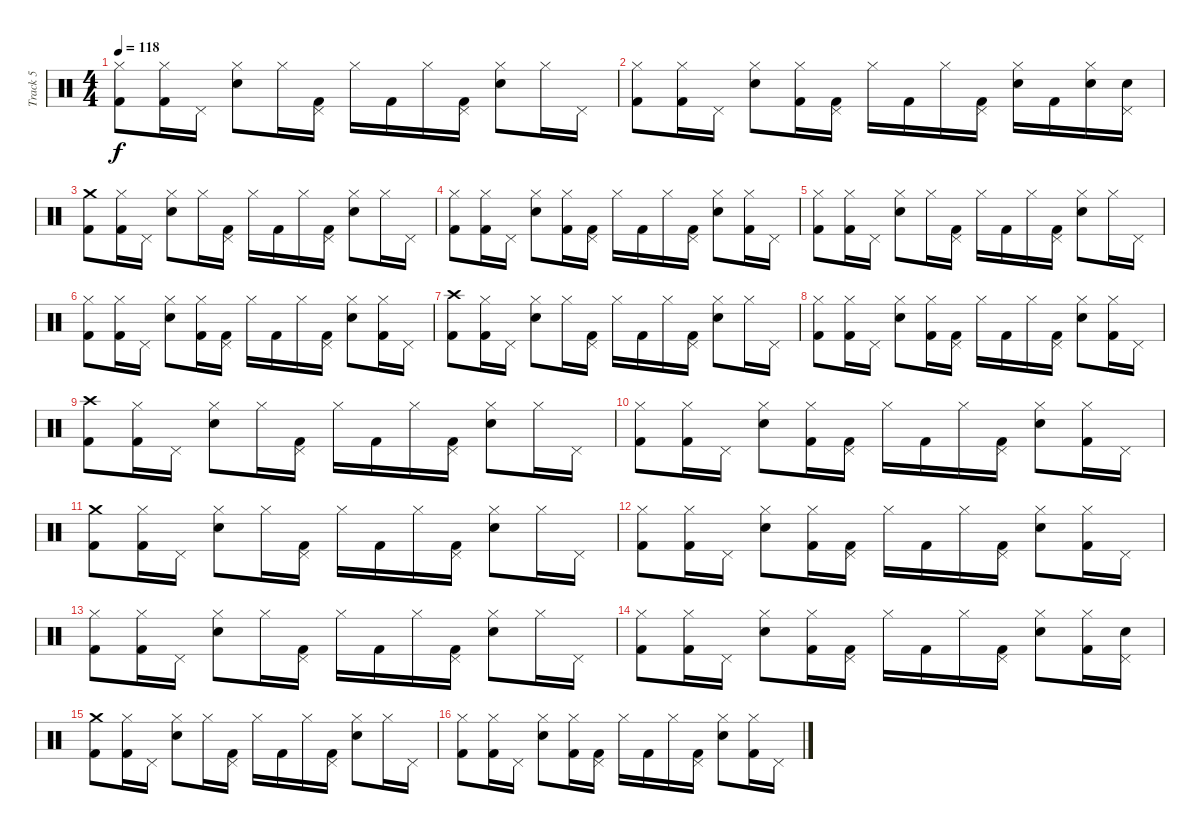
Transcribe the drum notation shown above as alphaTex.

\track ("Track 5" "Track 5") {instrument percussion}
\staff {score}
\articulation defaults
\ts (4 4)
\tempo 118
\clef neutral
\ks c
("Hi-Hat (closed)" "Kick (hit) 2").8{dy f} ("Hi-Hat (closed)" "Kick (hit) 2").16 "Pedal Hi-Hat (hit)".16 ("Hi-Hat (closed)" "Snare (hit) 2").8 "Hi-Hat (closed)".16 ("Pedal Hi-Hat (hit)" "Kick (hit) 2").16 "Hi-Hat (closed)".16 "Kick (hit) 2".16 "Hi-Hat (closed)".16 ("Pedal Hi-Hat (hit)" "Kick (hit) 2").16 ("Hi-Hat (closed)" "Snare (hit) 2").8 "Hi-Hat (closed)".16 "Pedal Hi-Hat (hit)".16 |
("Hi-Hat (closed)" "Kick (hit) 2").8 ("Hi-Hat (closed)" "Kick (hit) 2").16 "Pedal Hi-Hat (hit)".16 ("Hi-Hat (closed)" "Snare (hit) 2").8 ("Hi-Hat (closed)" "Kick (hit) 2").16 ("Pedal Hi-Hat (hit)" "Kick (hit) 2").16 "Hi-Hat (closed)".16 "Kick (hit) 2".16 "Hi-Hat (closed)".16 ("Pedal Hi-Hat (hit)" "Kick (hit) 2").16 ("Hi-Hat (closed)" "Snare (hit) 2").16 "Kick (hit) 2".16 ("Hi-Hat (closed)" "Snare (hit) 2").16 ("Pedal Hi-Hat (hit)" "Snare (hit) 2").16 |
("Crash medium (hit)" "Kick (hit) 2").8 ("Hi-Hat (closed)" "Kick (hit) 2").16 "Pedal Hi-Hat (hit)".16 ("Hi-Hat (closed)" "Snare (hit) 2").8 "Hi-Hat (closed)".16 ("Pedal Hi-Hat (hit)" "Kick (hit) 2").16 "Hi-Hat (closed)".16 "Kick (hit) 2".16 "Hi-Hat (closed)".16 ("Pedal Hi-Hat (hit)" "Kick (hit) 2").16 ("Hi-Hat (closed)" "Snare (hit) 2").8 "Hi-Hat (closed)".16 "Pedal Hi-Hat (hit)".16 |
("Hi-Hat (closed)" "Kick (hit) 2").8 ("Hi-Hat (closed)" "Kick (hit) 2").16 "Pedal Hi-Hat (hit)".16 ("Hi-Hat (closed)" "Snare (hit) 2").8 ("Hi-Hat (closed)" "Kick (hit) 2").16 ("Pedal Hi-Hat (hit)" "Kick (hit) 2").16 "Hi-Hat (closed)".16 "Kick (hit) 2".16 "Hi-Hat (closed)".16 ("Pedal Hi-Hat (hit)" "Kick (hit) 2").16 ("Hi-Hat (closed)" "Snare (hit) 2").8 ("Hi-Hat (closed)" "Kick (hit) 2").16 "Pedal Hi-Hat (hit)".16 |
("Hi-Hat (closed)" "Kick (hit) 2").8 ("Hi-Hat (closed)" "Kick (hit) 2").16 "Pedal Hi-Hat (hit)".16 ("Hi-Hat (closed)" "Snare (hit) 2").8 "Hi-Hat (closed)".16 ("Pedal Hi-Hat (hit)" "Kick (hit) 2").16 "Hi-Hat (closed)".16 "Kick (hit) 2".16 "Hi-Hat (closed)".16 ("Pedal Hi-Hat (hit)" "Kick (hit) 2").16 ("Hi-Hat (closed)" "Snare (hit) 2").8 "Hi-Hat (closed)".16 "Pedal Hi-Hat (hit)".16 |
("Hi-Hat (closed)" "Kick (hit) 2").8 ("Hi-Hat (closed)" "Kick (hit) 2").16 "Pedal Hi-Hat (hit)".16 ("Hi-Hat (closed)" "Snare (hit) 2").8 ("Hi-Hat (closed)" "Kick (hit) 2").16 ("Pedal Hi-Hat (hit)" "Kick (hit) 2").16 "Hi-Hat (closed)".16 "Kick (hit) 2".16 "Hi-Hat (closed)".16 ("Pedal Hi-Hat (hit)" "Kick (hit) 2").16 ("Hi-Hat (closed)" "Snare (hit) 2").8 ("Hi-Hat (closed)" "Kick (hit) 2").16 "Pedal Hi-Hat (hit)".16 |
("Crash high (hit)" "Kick (hit) 2").8 ("Hi-Hat (closed)" "Kick (hit) 2").16 "Pedal Hi-Hat (hit)".16 ("Hi-Hat (closed)" "Snare (hit) 2").8 "Hi-Hat (closed)".16 ("Pedal Hi-Hat (hit)" "Kick (hit) 2").16 "Hi-Hat (closed)".16 "Kick (hit) 2".16 "Hi-Hat (closed)".16 ("Pedal Hi-Hat (hit)" "Kick (hit) 2").16 ("Hi-Hat (closed)" "Snare (hit) 2").8 "Hi-Hat (closed)".16 "Pedal Hi-Hat (hit)".16 |
("Hi-Hat (closed)" "Kick (hit) 2").8 ("Hi-Hat (closed)" "Kick (hit) 2").16 "Pedal Hi-Hat (hit)".16 ("Hi-Hat (closed)" "Snare (hit) 2").8 ("Hi-Hat (closed)" "Kick (hit) 2").16 ("Pedal Hi-Hat (hit)" "Kick (hit) 2").16 "Hi-Hat (closed)".16 "Kick (hit) 2".16 "Hi-Hat (closed)".16 ("Pedal Hi-Hat (hit)" "Kick (hit) 2").16 ("Hi-Hat (closed)" "Snare (hit) 2").8 ("Hi-Hat (closed)" "Kick (hit) 2").16 "Pedal Hi-Hat (hit)".16 |
("Crash high (hit)" "Kick (hit) 2").8 ("Hi-Hat (closed)" "Kick (hit) 2").16 "Pedal Hi-Hat (hit)".16 ("Hi-Hat (closed)" "Snare (hit) 2").8 "Hi-Hat (closed)".16 ("Pedal Hi-Hat (hit)" "Kick (hit) 2").16 "Hi-Hat (closed)".16 "Kick (hit) 2".16 "Hi-Hat (closed)".16 ("Pedal Hi-Hat (hit)" "Kick (hit) 2").16 ("Hi-Hat (closed)" "Snare (hit) 2").8 "Hi-Hat (closed)".16 "Pedal Hi-Hat (hit)".16 |
("Hi-Hat (closed)" "Kick (hit) 2").8 ("Hi-Hat (closed)" "Kick (hit) 2").16 "Pedal Hi-Hat (hit)".16 ("Hi-Hat (closed)" "Snare (hit) 2").8 ("Hi-Hat (closed)" "Kick (hit) 2").16 ("Pedal Hi-Hat (hit)" "Kick (hit) 2").16 "Hi-Hat (closed)".16 "Kick (hit) 2".16 "Hi-Hat (closed)".16 ("Pedal Hi-Hat (hit)" "Kick (hit) 2").16 ("Hi-Hat (closed)" "Snare (hit) 2").8 ("Hi-Hat (closed)" "Kick (hit) 2").16 "Pedal Hi-Hat (hit)".16 |
("Crash medium (hit)" "Kick (hit) 2").8 ("Hi-Hat (closed)" "Kick (hit) 2").16 "Pedal Hi-Hat (hit)".16 ("Hi-Hat (closed)" "Snare (hit) 2").8 "Hi-Hat (closed)".16 ("Pedal Hi-Hat (hit)" "Kick (hit) 2").16 "Hi-Hat (closed)".16 "Kick (hit) 2".16 "Hi-Hat (closed)".16 ("Pedal Hi-Hat (hit)" "Kick (hit) 2").16 ("Hi-Hat (closed)" "Snare (hit) 2").8 "Hi-Hat (closed)".16 "Pedal Hi-Hat (hit)".16 |
("Hi-Hat (closed)" "Kick (hit) 2").8 ("Hi-Hat (closed)" "Kick (hit) 2").16 "Pedal Hi-Hat (hit)".16 ("Hi-Hat (closed)" "Snare (hit) 2").8 ("Hi-Hat (closed)" "Kick (hit) 2").16 ("Pedal Hi-Hat (hit)" "Kick (hit) 2").16 "Hi-Hat (closed)".16 "Kick (hit) 2".16 "Hi-Hat (closed)".16 ("Pedal Hi-Hat (hit)" "Kick (hit) 2").16 ("Hi-Hat (closed)" "Snare (hit) 2").8 ("Hi-Hat (closed)" "Kick (hit) 2").16 "Pedal Hi-Hat (hit)".16 |
("Hi-Hat (closed)" "Kick (hit) 2").8 ("Hi-Hat (closed)" "Kick (hit) 2").16 "Pedal Hi-Hat (hit)".16 ("Hi-Hat (closed)" "Snare (hit) 2").8 "Hi-Hat (closed)".16 ("Pedal Hi-Hat (hit)" "Kick (hit) 2").16 "Hi-Hat (closed)".16 "Kick (hit) 2".16 "Hi-Hat (closed)".16 ("Pedal Hi-Hat (hit)" "Kick (hit) 2").16 ("Hi-Hat (closed)" "Snare (hit) 2").8 "Hi-Hat (closed)".16 "Pedal Hi-Hat (hit)".16 |
("Hi-Hat (closed)" "Kick (hit) 2").8 ("Hi-Hat (closed)" "Kick (hit) 2").16 "Pedal Hi-Hat (hit)".16 ("Hi-Hat (closed)" "Snare (hit) 2").8 ("Hi-Hat (closed)" "Kick (hit) 2").16 ("Pedal Hi-Hat (hit)" "Kick (hit) 2").16 "Hi-Hat (closed)".16 "Kick (hit) 2".16 "Hi-Hat (closed)".16 ("Pedal Hi-Hat (hit)" "Kick (hit) 2").16 ("Hi-Hat (closed)" "Snare (hit) 2").8 ("Hi-Hat (closed)" "Kick (hit) 2").16 ("Pedal Hi-Hat (hit)" "Snare (hit) 2").16 |
("Crash medium (hit)" "Kick (hit) 2").8 ("Hi-Hat (closed)" "Kick (hit) 2").16 "Pedal Hi-Hat (hit)".16 ("Hi-Hat (closed)" "Snare (hit) 2").8 "Hi-Hat (closed)".16 ("Pedal Hi-Hat (hit)" "Kick (hit) 2").16 "Hi-Hat (closed)".16 "Kick (hit) 2".16 "Hi-Hat (closed)".16 ("Pedal Hi-Hat (hit)" "Kick (hit) 2").16 ("Hi-Hat (closed)" "Snare (hit) 2").8 "Hi-Hat (closed)".16 "Pedal Hi-Hat (hit)".16 |
("Hi-Hat (closed)" "Kick (hit) 2").8 ("Hi-Hat (closed)" "Kick (hit) 2").16 "Pedal Hi-Hat (hit)".16 ("Hi-Hat (closed)" "Snare (hit) 2").8 ("Hi-Hat (closed)" "Kick (hit) 2").16 ("Pedal Hi-Hat (hit)" "Kick (hit) 2").16 "Hi-Hat (closed)".16 "Kick (hit) 2".16 "Hi-Hat (closed)".16 ("Pedal Hi-Hat (hit)" "Kick (hit) 2").16 ("Hi-Hat (closed)" "Snare (hit) 2").8 ("Hi-Hat (closed)" "Kick (hit) 2").16 "Pedal Hi-Hat (hit)".16
